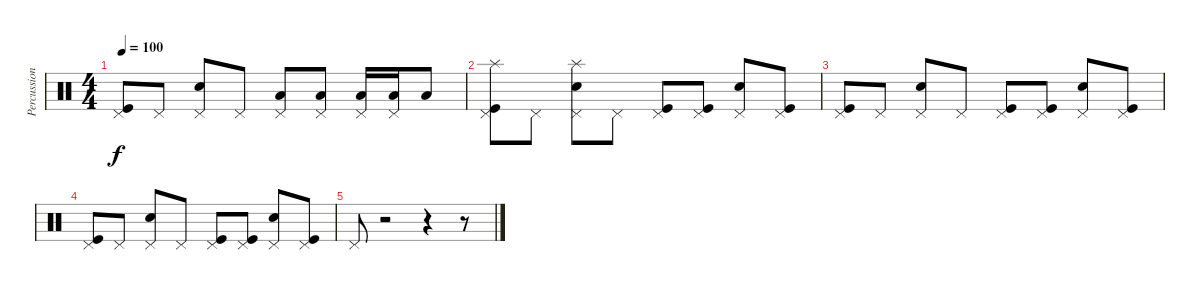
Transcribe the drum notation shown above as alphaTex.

\track ("Percussion" "Percussion") {instrument percussion}
\staff {score}
\articulation defaults
\ts (4 4)
\tempo 100
\clef neutral
\ks c
("Kick (hit)" "Pedal Hi-Hat (hit)").8{dy f} "Pedal Hi-Hat (hit)".8 ("Snare (hit) 2" "Pedal Hi-Hat (hit)").8 "Pedal Hi-Hat (hit)".8 ("Low Tom (hit)" "Pedal Hi-Hat (hit)").8 ("Low Tom (hit)" "Pedal Hi-Hat (hit)").8 ("Low Tom (hit)" "Pedal Hi-Hat (hit)").16 ("Low Floor Tom (hit)" "Pedal Hi-Hat (hit)").16 "Low Tom (hit)".8 |
("Splash (hit)" "Kick (hit)" "Pedal Hi-Hat (hit)").8 "Pedal Hi-Hat (hit)".8 ("Splash (hit)" "Snare (hit) 2" "Pedal Hi-Hat (hit)").8 "Pedal Hi-Hat (hit)".8 ("Kick (hit)" "Pedal Hi-Hat (hit)").8 ("Kick (hit)" "Pedal Hi-Hat (hit)").8 ("Snare (hit) 2" "Pedal Hi-Hat (hit)").8 ("Kick (hit)" "Pedal Hi-Hat (hit)").8 |
("Kick (hit)" "Pedal Hi-Hat (hit)").8 "Pedal Hi-Hat (hit)".8 ("Snare (hit) 2" "Pedal Hi-Hat (hit)").8 "Pedal Hi-Hat (hit)".8 ("Kick (hit)" "Pedal Hi-Hat (hit)").8 ("Kick (hit)" "Pedal Hi-Hat (hit)").8 ("Snare (hit) 2" "Pedal Hi-Hat (hit)").8 ("Kick (hit)" "Pedal Hi-Hat (hit)").8 |
("Kick (hit)" "Pedal Hi-Hat (hit)").8 "Pedal Hi-Hat (hit)".8 ("Snare (hit) 2" "Pedal Hi-Hat (hit)").8 "Pedal Hi-Hat (hit)".8 ("Kick (hit)" "Pedal Hi-Hat (hit)").8 ("Kick (hit)" "Pedal Hi-Hat (hit)").8 ("Snare (hit) 2" "Pedal Hi-Hat (hit)").8 ("Kick (hit)" "Pedal Hi-Hat (hit)").8 |
"Pedal Hi-Hat (hit)".8 r.2 r.4 r.8
